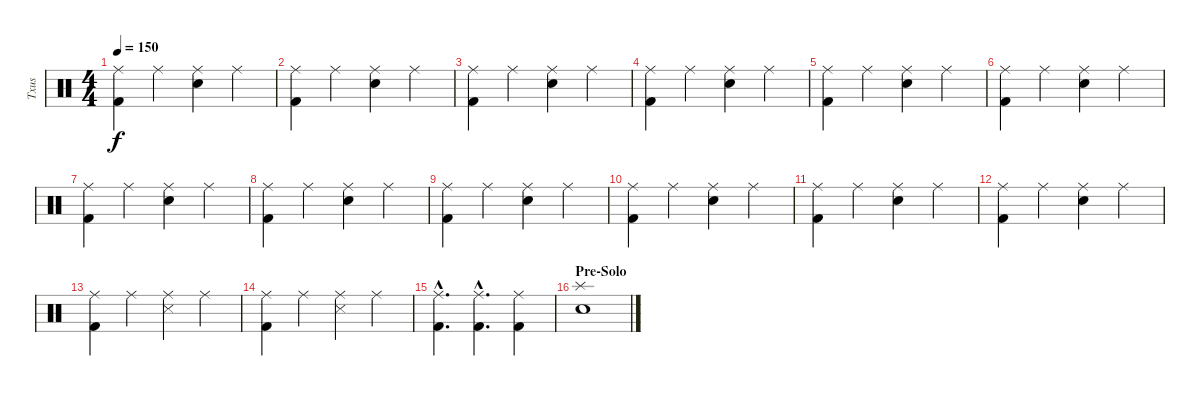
\track ("Txus" "Txus") {instrument percussion}
\staff {score}
\articulation defaults
\ts (4 4)
\tempo 150
\clef neutral
\ks c
("Ride (middle)" "Kick (hit) 2").4{dy f} "Ride (middle)".4 ("Snare (hit) 2" "Ride (middle)").4 "Ride (middle)".4 |
("Ride (middle)" "Kick (hit) 2").4 "Ride (middle)".4 ("Snare (hit) 2" "Ride (middle)").4 "Ride (middle)".4 |
("Ride (middle)" "Kick (hit) 2").4 "Ride (middle)".4 ("Snare (hit) 2" "Ride (middle)").4 "Ride (middle)".4 |
("Ride (middle)" "Kick (hit) 2").4 "Ride (middle)".4 ("Snare (hit) 2" "Ride (middle)").4 "Ride (middle)".4 |
("Ride (middle)" "Kick (hit) 2").4 "Ride (middle)".4 ("Snare (hit) 2" "Ride (middle)").4 "Ride (middle)".4 |
("Ride (middle)" "Kick (hit) 2").4 "Ride (middle)".4 ("Snare (hit) 2" "Ride (middle)").4 "Ride (middle)".4 |
("Ride (middle)" "Kick (hit) 2").4 "Ride (middle)".4 ("Snare (hit) 2" "Ride (middle)").4 "Ride (middle)".4 |
("Ride (middle)" "Kick (hit) 2").4 "Ride (middle)".4 ("Snare (hit) 2" "Ride (middle)").4 "Ride (middle)".4 |
("Ride (middle)" "Kick (hit) 2").4 "Ride (middle)".4 ("Snare (hit) 2" "Ride (middle)").4 "Ride (middle)".4 |
("Ride (middle)" "Kick (hit) 2").4 "Ride (middle)".4 ("Snare (hit) 2" "Ride (middle)").4 "Ride (middle)".4 |
("Ride (middle)" "Kick (hit) 2").4 "Ride (middle)".4 ("Snare (hit) 2" "Ride (middle)").4 "Ride (middle)".4 |
("Ride (middle)" "Kick (hit) 2").4 "Ride (middle)".4 ("Snare (hit) 2" "Ride (middle)").4 "Ride (middle)".4 |
("Ride (middle)" "Kick (hit) 2").4 "Ride (middle)".4 ("Snare (side stick) 3" "Ride (middle)").4 "Ride (middle)".4 |
("Kick (hit) 2" "Ride (middle)").4 "Ride (middle)".4 ("Snare (side stick) 3" "Ride (middle)").4 "Ride (middle)".4 |
("Ride (middle)"{hac} "Kick (hit) 2"{hac}).4{d} ("Ride (middle)"{hac} "Kick (hit) 2"{hac}).4{d} ("Ride (middle)" "Kick (hit) 2").4 |
\section ("" "Pre-Solo")
("Splash (hit)" "Snare (hit) 2").1
